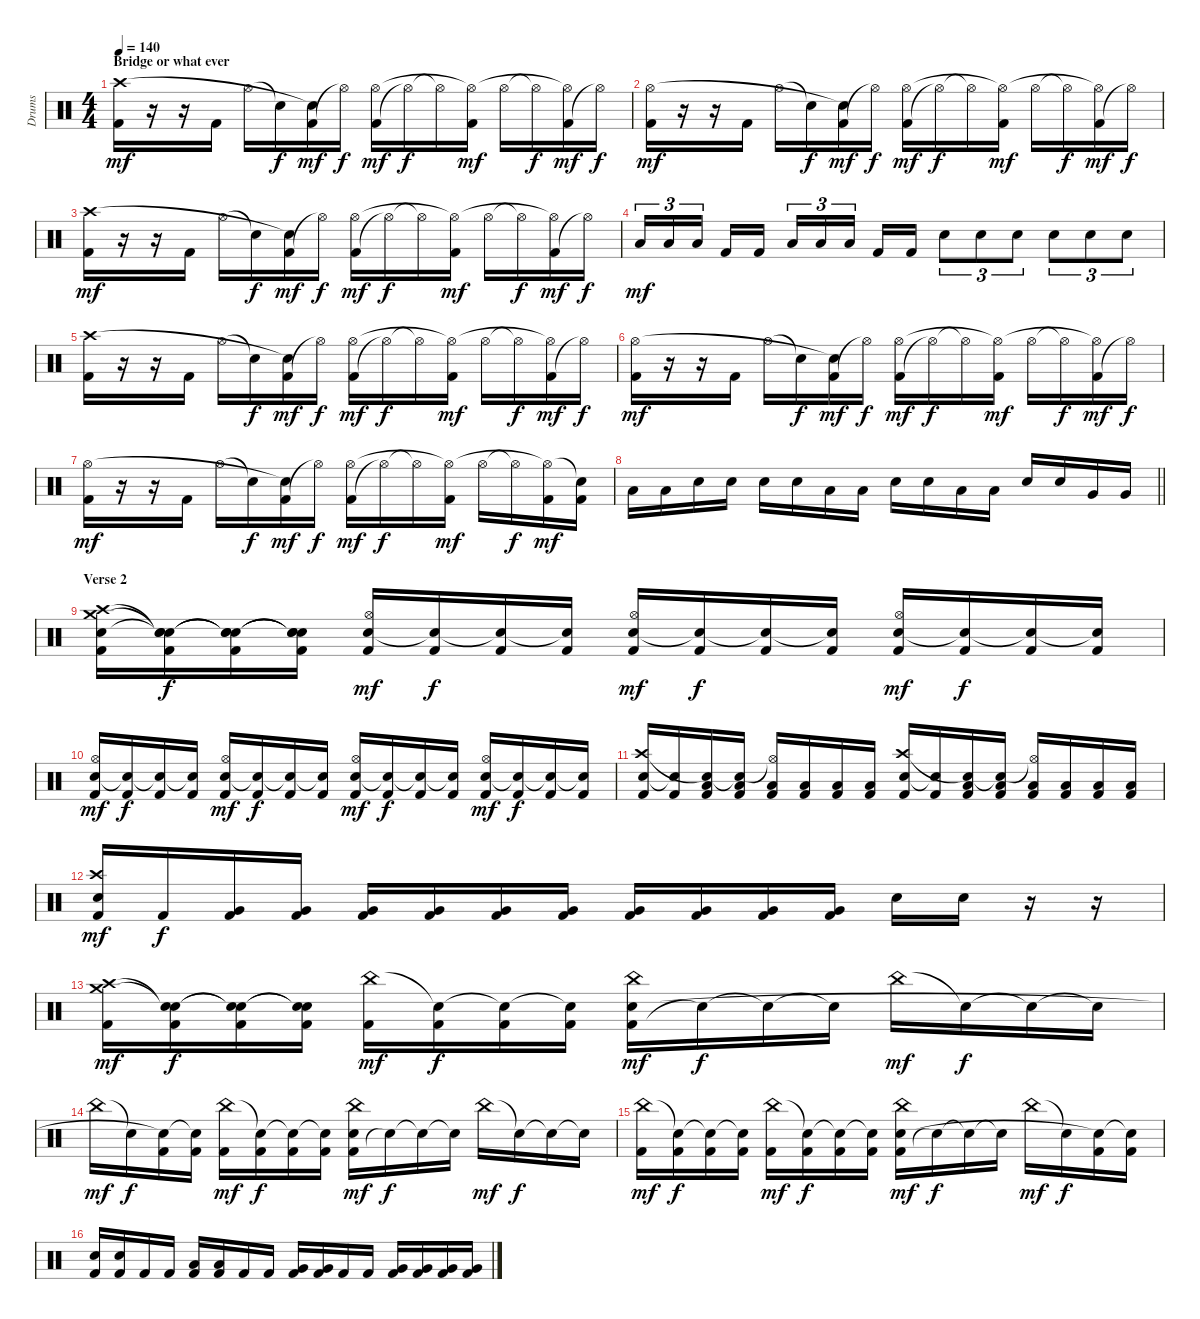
\track ("Drums" "Drums") {instrument percussion}
\staff {score}
\articulation defaults
\ts (4 4)
\section ("" "Bridge or what ever")
\tempo 140
\clef neutral
\ks c
("Kick (hit) 2" "Crash high (hit)").16{dy mf} r.16 r.16 "Kick (hit) 2".16 "Hi-Hat (open)".16 "Snare (hit)"{t}.16{dy f} ("Kick (hit) 2" "Snare (hit)"{t}).16{dy mf} "Hi-Hat (open)"{t}.16{dy f} ("Kick (hit) 2" "Hi-Hat (open)").16{dy mf} "Hi-Hat (open)"{t}.16{dy f} "Hi-Hat (open)"{t}.16 ("Kick (hit) 2" "Hi-Hat (open)"{t}).16{dy mf} "Hi-Hat (open)".16 "Hi-Hat (open)"{t}.16{dy f} ("Kick (hit) 2" "Hi-Hat (open)"{t}).16{dy mf} "Hi-Hat (open)"{t}.16{dy f} |
("Kick (hit) 2" "Hi-Hat (open)").16{dy mf} r.16 r.16 "Kick (hit) 2".16 "Hi-Hat (open)".16 "Snare (hit)"{t}.16{dy f} ("Kick (hit) 2" "Snare (hit)"{t}).16{dy mf} "Hi-Hat (open)"{t}.16{dy f} ("Kick (hit) 2" "Hi-Hat (open)").16{dy mf} "Hi-Hat (open)"{t}.16{dy f} "Hi-Hat (open)"{t}.16 ("Kick (hit) 2" "Hi-Hat (open)"{t}).16{dy mf} "Hi-Hat (open)".16 "Hi-Hat (open)"{t}.16{dy f} ("Kick (hit) 2" "Hi-Hat (open)"{t}).16{dy mf} "Hi-Hat (open)"{t}.16{dy f} |
("Kick (hit) 2" "Crash high (hit)").16{dy mf} r.16 r.16 "Kick (hit) 2".16 "Hi-Hat (open)".16 "Snare (hit)"{t}.16{dy f} ("Kick (hit) 2" "Snare (hit)"{t}).16{dy mf} "Hi-Hat (open)"{t}.16{dy f} ("Kick (hit) 2" "Hi-Hat (open)").16{dy mf} "Hi-Hat (open)"{t}.16{dy f} "Hi-Hat (open)"{t}.16 ("Kick (hit) 2" "Hi-Hat (open)"{t}).16{dy mf} "Hi-Hat (open)".16 "Hi-Hat (open)"{t}.16{dy f} ("Kick (hit) 2" "Hi-Hat (open)"{t}).16{dy mf} "Hi-Hat (open)"{t}.16{dy f} |
"Low Tom (hit)".16{tu (3 2) dy mf} "Low Tom (hit)".16{tu (3 2)} "Low Tom (hit)".16{tu (3 2) beam splitsecondary} "Kick (hit) 2".16 "Kick (hit) 2".16 "Low Tom (hit)".16{tu (3 2)} "Low Tom (hit)".16{tu (3 2)} "Low Tom (hit)".16{tu (3 2) beam splitsecondary} "Kick (hit) 2".16 "Kick (hit) 2".16 "Snare (hit) 2".8{tu (3 2)} "Snare (hit) 2".8{tu (3 2)} "Snare (hit) 2".8{tu (3 2)} "Snare (hit) 2".8{tu (3 2)} "Snare (hit) 2".8{tu (3 2)} "Snare (hit) 2".8{tu (3 2)} |
("Kick (hit) 2" "Crash high (hit)").16 r.16 r.16 "Kick (hit) 2".16 "Hi-Hat (open)".16 "Snare (hit)"{t}.16{dy f} ("Kick (hit) 2" "Snare (hit)"{t}).16{dy mf} "Hi-Hat (open)"{t}.16{dy f} ("Kick (hit) 2" "Hi-Hat (open)").16{dy mf} "Hi-Hat (open)"{t}.16{dy f} "Hi-Hat (open)"{t}.16 ("Kick (hit) 2" "Hi-Hat (open)"{t}).16{dy mf} "Hi-Hat (open)".16 "Hi-Hat (open)"{t}.16{dy f} ("Kick (hit) 2" "Hi-Hat (open)"{t}).16{dy mf} "Hi-Hat (open)"{t}.16{dy f} |
("Kick (hit) 2" "Hi-Hat (open)").16{dy mf} r.16 r.16 "Kick (hit) 2".16 "Hi-Hat (open)".16 "Snare (hit)"{t}.16{dy f} ("Kick (hit) 2" "Snare (hit)"{t}).16{dy mf} "Hi-Hat (open)"{t}.16{dy f} ("Kick (hit) 2" "Hi-Hat (open)").16{dy mf} "Hi-Hat (open)"{t}.16{dy f} "Hi-Hat (open)"{t}.16 ("Kick (hit) 2" "Hi-Hat (open)"{t}).16{dy mf} "Hi-Hat (open)".16 "Hi-Hat (open)"{t}.16{dy f} ("Kick (hit) 2" "Hi-Hat (open)"{t}).16{dy mf} "Hi-Hat (open)"{t}.16{dy f} |
("Kick (hit) 2" "Hi-Hat (open)").16{dy mf} r.16 r.16 "Kick (hit) 2".16 "Hi-Hat (open)".16 "Snare (hit)"{t}.16{dy f} ("Kick (hit) 2" "Snare (hit)"{t}).16{dy mf} "Hi-Hat (open)"{t}.16{dy f} ("Kick (hit) 2" "Hi-Hat (open)").16{dy mf} "Hi-Hat (open)"{t}.16{dy f} "Hi-Hat (open)"{t}.16 ("Kick (hit) 2" "Hi-Hat (open)"{t}).16{dy mf} "Hi-Hat (open)".16 "Hi-Hat (open)"{t}.16{dy f} ("Kick (hit) 2" "Hi-Hat (open)"{t}).16{dy mf} ("Kick (hit) 2" "Snare (hit)"{t}).16 |
\barLineRight lightlight "Low Tom (hit)".16 "Low Tom (hit)".16 "Snare (hit) 2".16 "Snare (hit) 2".16 "Snare (hit) 2".16 "Snare (hit) 2".16 "Low Tom (hit)".16 "Low Tom (hit)".16 "Snare (hit) 2".16 "Snare (hit) 2".16 "Low Tom (hit)".16 "Low Tom (hit)".16 "Snare (hit) 2".16 "Snare (hit) 2".16 "Very Low Tom (hit)".16 "Very Low Tom (hit)".16
|
\section ("" "Verse 2")
("Kick (hit) 2" "Snare (hit) 2" "Crash high (hit)" "Crash medium (hit)").16 ("Kick (hit) 2" "Snare (hit)"{t} "Snare (hit)"{t} "Snare (hit)"{t}).16{dy f} ("Kick (hit) 2" "Snare (hit)"{t} "Snare (hit)"{t} "Snare (hit)"{t}).16 ("Kick (hit) 2" "Snare (hit)"{t} "Snare (hit)"{t} "Snare (hit)"{t}).16 ("Kick (hit) 2" "Snare (hit) 2" "Hi-Hat (open)").16{dy mf} ("Kick (hit) 2" "Snare (hit)"{t}).16{dy f} ("Kick (hit) 2" "Snare (hit)"{t}).16 ("Kick (hit) 2" "Snare (hit)"{t}).16 ("Kick (hit) 2" "Snare (hit) 2" "Hi-Hat (open)").16{dy mf} ("Kick (hit) 2" "Snare (hit)"{t}).16{dy f} ("Kick (hit) 2" "Snare (hit)"{t}).16 ("Kick (hit) 2" "Snare (hit)"{t}).16 ("Kick (hit) 2" "Snare (hit) 2" "Hi-Hat (open)").16{dy mf} ("Kick (hit) 2" "Snare (hit)"{t}).16{dy f} ("Kick (hit) 2" "Snare (hit)"{t}).16 ("Kick (hit) 2" "Snare (hit)"{t}).16 |
("Kick (hit) 2" "Snare (hit) 2" "Hi-Hat (open)").16{dy mf} ("Kick (hit) 2" "Snare (hit)"{t}).16{dy f} ("Kick (hit) 2" "Snare (hit)"{t}).16 ("Kick (hit) 2" "Snare (hit)"{t}).16 ("Kick (hit) 2" "Snare (hit) 2" "Hi-Hat (open)").16{dy mf} ("Kick (hit) 2" "Snare (hit)"{t}).16{dy f} ("Kick (hit) 2" "Snare (hit)"{t}).16 ("Kick (hit) 2" "Snare (hit)"{t}).16 ("Kick (hit) 2" "Snare (hit) 2" "Hi-Hat (open)").16{dy mf} ("Kick (hit) 2" "Snare (hit)"{t}).16{dy f} ("Kick (hit) 2" "Snare (hit)"{t}).16 ("Kick (hit) 2" "Snare (hit)"{t}).16 ("Kick (hit) 2" "Snare (hit) 2" "Hi-Hat (open)").16{dy mf} ("Kick (hit) 2" "Snare (hit)"{t}).16{dy f} ("Kick (hit) 2" "Snare (hit)"{t}).16 ("Kick (hit) 2" "Snare (hit)"{t}).16 |
("Kick (hit) 2" "Snare (hit) 2" "Crash high (hit)").16 ("Kick (hit) 2" "Snare (hit)"{t}).16 ("Kick (hit) 2" "Low Tom (hit)" "Snare (hit)"{t}).16 ("Kick (hit) 2" "Low Tom (hit)" "Snare (hit)"{t}).16 ("Kick (hit) 2" "Low Tom (hit)" "Hi-Hat (open)"{t}).16 ("Kick (hit) 2" "Low Tom (hit)").16 ("Kick (hit) 2" "Low Tom (hit)").16 ("Kick (hit) 2" "Low Tom (hit)").16 ("Kick (hit) 2" "Snare (hit) 2" "Crash high (hit)").16 ("Kick (hit) 2" "Snare (hit)"{t}).16 ("Kick (hit) 2" "Low Tom (hit)" "Snare (hit)"{t}).16 ("Kick (hit) 2" "Low Tom (hit)" "Snare (hit)"{t}).16 ("Kick (hit) 2" "Low Tom (hit)" "Hi-Hat (open)"{t}).16 ("Kick (hit) 2" "Low Tom (hit)").16 ("Kick (hit) 2" "Low Tom (hit)").16 ("Kick (hit) 2" "Low Tom (hit)").16 |
("Kick (hit) 2" "Snare (hit) 2" "Crash high (hit)").16{dy mf} "Kick (hit) 2".16{dy f} ("Kick (hit) 2" "Very Low Tom (hit)").16 ("Kick (hit) 2" "Very Low Tom (hit)").16 ("Kick (hit) 2" "Very Low Tom (hit)").16 ("Kick (hit) 2" "Very Low Tom (hit)").16 ("Kick (hit) 2" "Very Low Tom (hit)").16 ("Kick (hit) 2" "Very Low Tom (hit)").16 ("Kick (hit) 2" "Very Low Tom (hit)").16 ("Kick (hit) 2" "Very Low Tom (hit)").16 ("Kick (hit) 2" "Very Low Tom (hit)").16 ("Kick (hit) 2" "Very Low Tom (hit)").16 "Snare (hit) 2".16 "Snare (hit) 2".16 r.16 r.16 |
("Kick (hit) 2" "Crash high (hit)" "Crash medium (hit)").16{dy mf} ("Kick (hit) 2" "Snare (hit)"{t} "Snare (hit)"{t}).16{dy f} ("Kick (hit) 2" "Snare (hit)"{t} "Snare (hit)"{t}).16 ("Kick (hit) 2" "Snare (hit)"{t} "Snare (hit)"{t}).16 ("Kick (hit) 2" "China (hit)").16{dy mf} ("Kick (hit) 2" "Snare (hit)"{t}).16{dy f} ("Kick (hit) 2" "Snare (hit)"{t}).16 ("Kick (hit) 2" "Snare (hit)"{t}).16 ("Kick (hit) 2" "Snare (hit) 2" "China (hit)").16{dy mf} "Snare (hit)"{t}.16{dy f} "Snare (hit)"{t}.16 "Snare (hit)"{t}.16 "China (hit)".16{dy mf} "Snare (hit)"{t}.16{dy f} "Snare (hit)"{t}.16 "Snare (hit)"{t}.16 |
"China (hit)".16{dy mf} "Snare (hit)"{t}.16{dy f} ("Kick (hit) 2" "Snare (hit)"{t}).16 ("Kick (hit) 2" "Snare (hit)"{t}).16 ("Kick (hit) 2" "China (hit)").16{dy mf} ("Kick (hit) 2" "Snare (hit)"{t}).16{dy f} ("Kick (hit) 2" "Snare (hit)"{t}).16 ("Kick (hit) 2" "Snare (hit)"{t}).16 ("Kick (hit) 2" "Snare (hit) 2" "China (hit)").16{dy mf} "Snare (hit)"{t}.16{dy f} "Snare (hit)"{t}.16 "Snare (hit)"{t}.16 "China (hit)".16{dy mf} "Snare (hit)"{t}.16{dy f} "Snare (hit)"{t}.16 "Snare (hit)"{t}.16 |
("Kick (hit) 2" "China (hit)").16{dy mf} ("Kick (hit) 2" "Snare (hit)"{t}).16{dy f} ("Kick (hit) 2" "Snare (hit)"{t}).16 ("Kick (hit) 2" "Snare (hit)"{t}).16 ("Kick (hit) 2" "China (hit)").16{dy mf} ("Kick (hit) 2" "Snare (hit)"{t}).16{dy f} ("Kick (hit) 2" "Snare (hit)"{t}).16 ("Kick (hit) 2" "Snare (hit)"{t}).16 ("Kick (hit) 2" "Snare (hit) 2" "China (hit)").16{dy mf} "Snare (hit)"{t}.16{dy f} "Snare (hit)"{t}.16 "Snare (hit)"{t}.16 "China (hit)".16{dy mf} "Snare (hit)"{t}.16{dy f} ("Kick (hit) 2" "Snare (hit)"{t}).16 ("Kick (hit) 2" "Snare (hit)"{t}).16 |
("Kick (hit) 2" "Snare (hit) 2").16 ("Kick (hit) 2" "Snare (hit) 2").16 "Kick (hit) 2".16 "Kick (hit) 2".16 ("Kick (hit) 2" "Low Tom (hit)").16 ("Kick (hit) 2" "Low Tom (hit)").16 "Kick (hit) 2".16 "Kick (hit) 2".16 ("Kick (hit) 2" "Very Low Tom (hit)").16 ("Kick (hit) 2" "Very Low Tom (hit)").16 "Kick (hit) 2".16 "Kick (hit) 2".16 ("Kick (hit) 2" "Very Low Tom (hit)").16 ("Kick (hit) 2" "Very Low Tom (hit)").16 ("Kick (hit) 2" "Very Low Tom (hit)").16 ("Kick (hit) 2" "Very Low Tom (hit)").16
